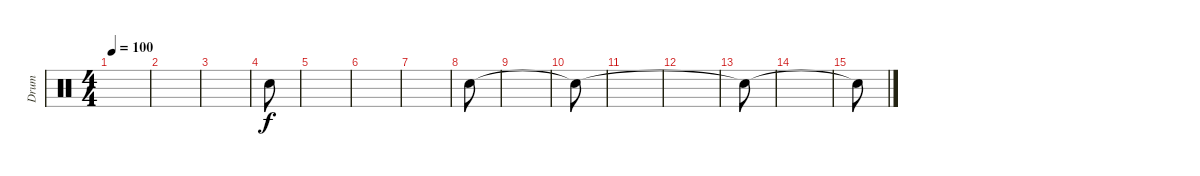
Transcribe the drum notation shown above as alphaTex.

\track ("Drum" "Drum") {instrument percussion}
\staff {score}
\articulation defaults
\ts (4 4)
\tempo 100
\clef neutral
\ks c
|
|
|
"Snare (hit)".8 |
|
|
|
"Snare (hit)".8 |
|
"Snare (hit)"{t}.8 |
|
|
"Snare (hit)"{t}.8 |
|
"Snare (hit)"{t}.8
